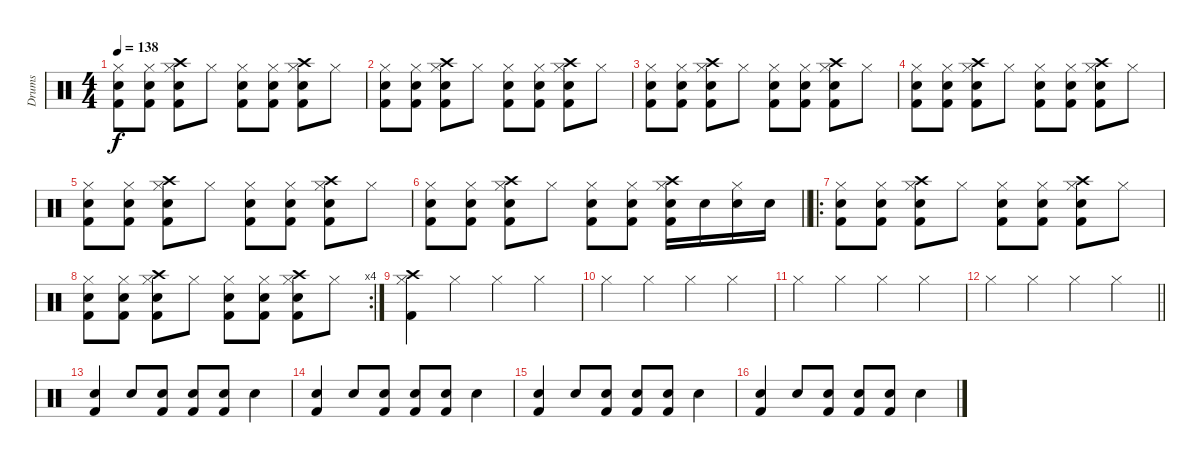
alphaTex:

\track ("Drums" "Drums") {instrument percussion}
\staff {score}
\articulation defaults
\ts (4 4)
\tempo 138
\clef neutral
\ks c
("Hi-Hat (closed)" "Snare (hit) 2" "Kick (hit) 2").8{dy f} ("Hi-Hat (closed)" "Snare (hit) 2" "Kick (hit) 2").8 ("Hi-Hat (closed)" "Crash high (hit)" "Snare (hit) 2" "Kick (hit) 2").8 "Hi-Hat (closed)".8 ("Hi-Hat (closed)" "Snare (hit) 2" "Kick (hit) 2").8 ("Hi-Hat (closed)" "Snare (hit) 2" "Kick (hit) 2").8 ("Hi-Hat (closed)" "Crash high (hit)" "Snare (hit) 2" "Kick (hit) 2").8 "Hi-Hat (closed)".8 |
("Hi-Hat (closed)" "Snare (hit) 2" "Kick (hit) 2").8 ("Hi-Hat (closed)" "Snare (hit) 2" "Kick (hit) 2").8 ("Hi-Hat (closed)" "Crash high (hit)" "Snare (hit) 2" "Kick (hit) 2").8 "Hi-Hat (closed)".8 ("Hi-Hat (closed)" "Snare (hit) 2" "Kick (hit) 2").8 ("Hi-Hat (closed)" "Snare (hit) 2" "Kick (hit) 2").8 ("Hi-Hat (closed)" "Crash high (hit)" "Snare (hit) 2" "Kick (hit) 2").8 "Hi-Hat (closed)".8 |
("Hi-Hat (closed)" "Snare (hit) 2" "Kick (hit) 2").8 ("Hi-Hat (closed)" "Snare (hit) 2" "Kick (hit) 2").8 ("Hi-Hat (closed)" "Crash high (hit)" "Snare (hit) 2" "Kick (hit) 2").8 "Hi-Hat (closed)".8 ("Hi-Hat (closed)" "Snare (hit) 2" "Kick (hit) 2").8 ("Hi-Hat (closed)" "Snare (hit) 2" "Kick (hit) 2").8 ("Hi-Hat (closed)" "Crash high (hit)" "Snare (hit) 2" "Kick (hit) 2").8 "Hi-Hat (closed)".8 |
("Hi-Hat (closed)" "Snare (hit) 2" "Kick (hit) 2").8 ("Hi-Hat (closed)" "Snare (hit) 2" "Kick (hit) 2").8 ("Hi-Hat (closed)" "Crash high (hit)" "Snare (hit) 2" "Kick (hit) 2").8 "Hi-Hat (closed)".8 ("Hi-Hat (closed)" "Snare (hit) 2" "Kick (hit) 2").8 ("Hi-Hat (closed)" "Snare (hit) 2" "Kick (hit) 2").8 ("Hi-Hat (closed)" "Crash high (hit)" "Snare (hit) 2" "Kick (hit) 2").8 "Hi-Hat (closed)".8 |
("Hi-Hat (closed)" "Snare (hit) 2" "Kick (hit) 2").8 ("Hi-Hat (closed)" "Snare (hit) 2" "Kick (hit) 2").8 ("Hi-Hat (closed)" "Crash high (hit)" "Snare (hit) 2" "Kick (hit) 2").8 "Hi-Hat (closed)".8 ("Hi-Hat (closed)" "Snare (hit) 2" "Kick (hit) 2").8 ("Hi-Hat (closed)" "Snare (hit) 2" "Kick (hit) 2").8 ("Hi-Hat (closed)" "Crash high (hit)" "Snare (hit) 2" "Kick (hit) 2").8 "Hi-Hat (closed)".8 |
\barLineRight lightlight
("Hi-Hat (closed)" "Snare (hit) 2" "Kick (hit) 2").8 ("Hi-Hat (closed)" "Snare (hit) 2" "Kick (hit) 2").8 ("Hi-Hat (closed)" "Crash high (hit)" "Snare (hit) 2" "Kick (hit) 2").8 "Hi-Hat (closed)".8 ("Hi-Hat (closed)" "Snare (hit) 2" "Kick (hit) 2").8 ("Hi-Hat (closed)" "Snare (hit) 2" "Kick (hit) 2").8 ("Hi-Hat (closed)" "Crash high (hit)" "Snare (hit) 2" "Kick (hit) 2").16 "Snare (hit) 2".16 ("Hi-Hat (closed)" "Snare (hit) 2").16 "Snare (hit) 2".16 |
\ro
("Hi-Hat (closed)" "Snare (hit) 2" "Kick (hit) 2").8 ("Hi-Hat (closed)" "Snare (hit) 2" "Kick (hit) 2").8 ("Hi-Hat (closed)" "Crash high (hit)" "Snare (hit) 2" "Kick (hit) 2").8 "Hi-Hat (closed)".8 ("Hi-Hat (closed)" "Snare (hit) 2" "Kick (hit) 2").8 ("Hi-Hat (closed)" "Snare (hit) 2" "Kick (hit) 2").8 ("Hi-Hat (closed)" "Crash high (hit)" "Snare (hit) 2" "Kick (hit) 2").8 "Hi-Hat (closed)".8 |
\rc 4
("Hi-Hat (closed)" "Snare (hit) 2" "Kick (hit) 2").8 ("Hi-Hat (closed)" "Snare (hit) 2" "Kick (hit) 2").8 ("Hi-Hat (closed)" "Crash high (hit)" "Snare (hit) 2" "Kick (hit) 2").8 "Hi-Hat (closed)".8 ("Hi-Hat (closed)" "Snare (hit) 2" "Kick (hit) 2").8 ("Hi-Hat (closed)" "Snare (hit) 2" "Kick (hit) 2").8 ("Hi-Hat (closed)" "Crash high (hit)" "Snare (hit) 2" "Kick (hit) 2").8 "Hi-Hat (closed)".8 |
("Hi-Hat (closed)" "Crash high (hit)" "Kick (hit) 2").4 "Hi-Hat (closed)".4 "Hi-Hat (closed)".4 "Hi-Hat (closed)".4 |
"Hi-Hat (closed)".4 "Hi-Hat (closed)".4 "Hi-Hat (closed)".4 "Hi-Hat (closed)".4 |
"Hi-Hat (closed)".4 "Hi-Hat (closed)".4 "Hi-Hat (closed)".4 "Hi-Hat (closed)".4 |
\barLineRight lightlight "Hi-Hat (closed)".4 "Hi-Hat (closed)".4 "Hi-Hat (closed)".4 "Hi-Hat (closed)".4
|
("Snare (hit) 2" "Kick (hit) 2").4 "Electric Snare (hit)".8 ("Snare (hit) 2" "Kick (hit) 2").8 ("Snare (hit) 2" "Kick (hit) 2").8 ("Snare (hit) 2" "Kick (hit) 2").8 "Electric Snare (hit)".4 |
("Snare (hit) 2" "Kick (hit) 2").4 "Electric Snare (hit)".8 ("Snare (hit) 2" "Kick (hit) 2").8 ("Snare (hit) 2" "Kick (hit) 2").8 ("Snare (hit) 2" "Kick (hit) 2").8 "Electric Snare (hit)".4 |
("Snare (hit) 2" "Kick (hit) 2").4 "Electric Snare (hit)".8 ("Snare (hit) 2" "Kick (hit) 2").8 ("Snare (hit) 2" "Kick (hit) 2").8 ("Snare (hit) 2" "Kick (hit) 2").8 "Electric Snare (hit)".4 |
("Snare (hit) 2" "Kick (hit) 2").4 "Electric Snare (hit)".8 ("Snare (hit) 2" "Kick (hit) 2").8 ("Snare (hit) 2" "Kick (hit) 2").8 ("Snare (hit) 2" "Kick (hit) 2").8 "Electric Snare (hit)".4
